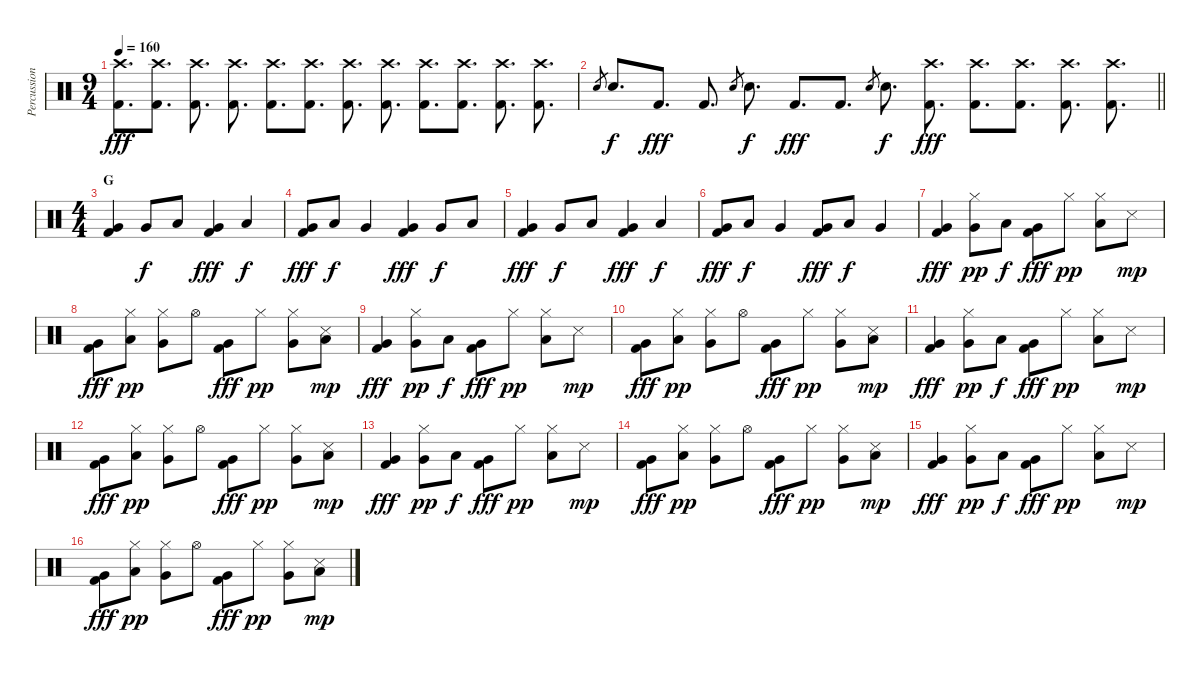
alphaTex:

\track ("Percussion" "Percussion") {instrument percussion}
\staff {score}
\articulation defaults
\ts (9 4)
\tempo 160
\clef neutral
\ks c
("Crash high (hit)" "Kick (hit) 2").8{d dy fff} ("Crash high (hit)" "Kick (hit) 2").8{d} ("Crash high (hit)" "Kick (hit) 2").8{d} ("Crash high (hit)" "Kick (hit) 2").8{d} ("Crash high (hit)" "Kick (hit) 2").8{d} ("Crash high (hit)" "Kick (hit) 2").8{d} ("Crash high (hit)" "Kick (hit) 2").8{d} ("Crash high (hit)" "Kick (hit) 2").8{d} ("Crash high (hit)" "Kick (hit) 2").8{d} ("Crash high (hit)" "Kick (hit) 2").8{d} ("Crash high (hit)" "Kick (hit) 2").8{d} ("Crash high (hit)" "Kick (hit) 2").8{d} |
\barLineRight lightlight "Electric Snare (hit)".8{gr} "Electric Snare (hit)".8{d dy f} "Kick (hit) 2".8{d dy fff} "Kick (hit) 2".8{d} "Electric Snare (hit)".8{gr} "Electric Snare (hit)".8{d dy f} "Kick (hit) 2".8{d dy fff} "Kick (hit) 2".8{d} "Electric Snare (hit)".8{gr} "Electric Snare (hit)".8{d dy f}
("Crash high (hit)" "Kick (hit) 2").8{d dy fff} ("Crash high (hit)" "Kick (hit) 2").8{d} ("Crash high (hit)" "Kick (hit) 2").8{d} ("Crash high (hit)" "Kick (hit) 2").8{d} ("Crash high (hit)" "Kick (hit) 2").8{d} |
\ts (4 4)
\section ("" "G")
("Very Low Tom (hit)" "Kick (hit) 2").4 "Very Low Tom (hit)".8{dy f} "Low Tom (hit)".8 ("Very Low Tom (hit)" "Kick (hit) 2").4{dy fff} "Low Tom (hit)".4{dy f} |
("Very Low Tom (hit)" "Kick (hit) 2").8{dy fff} "Low Tom (hit)".8{dy f} "Very Low Tom (hit)".4 ("Very Low Tom (hit)" "Kick (hit) 2").4{dy fff} "Very Low Tom (hit)".8{dy f} "Low Tom (hit)".8 |
("Very Low Tom (hit)" "Kick (hit) 2").4{dy fff} "Very Low Tom (hit)".8{dy f} "Low Tom (hit)".8 ("Very Low Tom (hit)" "Kick (hit) 2").4{dy fff} "Low Tom (hit)".4{dy f} |
("Very Low Tom (hit)" "Kick (hit) 2").8{dy fff} "Low Tom (hit)".8{dy f} "Very Low Tom (hit)".4 ("Very Low Tom (hit)" "Kick (hit) 2").8{dy fff} "Low Tom (hit)".8{dy f} "Very Low Tom (hit)".4 |
("Very Low Tom (hit)" "Kick (hit) 2").4{dy fff} ("Hi-Hat (closed)" "Very Low Tom (hit)").8{dy pp} "Low Tom (hit)".8{dy f} ("Very Low Tom (hit)" "Kick (hit) 2").8{dy fff} "Hi-Hat (closed)".8{dy pp} ("Hi-Hat (closed)" "Low Tom (hit)").8 "Snare (side stick) 3".8{dy mp} |
("Very Low Tom (hit)" "Kick (hit) 2").8{dy fff} ("Hi-Hat (closed)" "Low Tom (hit)").8{dy pp} ("Hi-Hat (closed)" "Very Low Tom (hit)").8 "Hi-Hat (open)".8 ("Very Low Tom (hit)" "Kick (hit) 2").8{dy fff} "Hi-Hat (closed)".8{dy pp} ("Hi-Hat (closed)" "Very Low Tom (hit)").8 ("Snare (side stick) 3" "Low Tom (hit)").8{dy mp} |
("Very Low Tom (hit)" "Kick (hit) 2").4{dy fff} ("Hi-Hat (closed)" "Very Low Tom (hit)").8{dy pp} "Low Tom (hit)".8{dy f} ("Very Low Tom (hit)" "Kick (hit) 2").8{dy fff} "Hi-Hat (closed)".8{dy pp} ("Hi-Hat (closed)" "Low Tom (hit)").8 "Snare (side stick) 3".8{dy mp} |
("Very Low Tom (hit)" "Kick (hit) 2").8{dy fff} ("Hi-Hat (closed)" "Low Tom (hit)").8{dy pp} ("Hi-Hat (closed)" "Very Low Tom (hit)").8 "Hi-Hat (open)".8 ("Very Low Tom (hit)" "Kick (hit) 2").8{dy fff} "Hi-Hat (closed)".8{dy pp} ("Hi-Hat (closed)" "Very Low Tom (hit)").8 ("Snare (side stick) 3" "Low Tom (hit)").8{dy mp} |
("Very Low Tom (hit)" "Kick (hit) 2").4{dy fff} ("Hi-Hat (closed)" "Very Low Tom (hit)").8{dy pp} "Low Tom (hit)".8{dy f} ("Very Low Tom (hit)" "Kick (hit) 2").8{dy fff} "Hi-Hat (closed)".8{dy pp} ("Hi-Hat (closed)" "Low Tom (hit)").8 "Snare (side stick) 3".8{dy mp} |
("Very Low Tom (hit)" "Kick (hit) 2").8{dy fff} ("Hi-Hat (closed)" "Low Tom (hit)").8{dy pp} ("Hi-Hat (closed)" "Very Low Tom (hit)").8 "Hi-Hat (open)".8 ("Very Low Tom (hit)" "Kick (hit) 2").8{dy fff} "Hi-Hat (closed)".8{dy pp} ("Hi-Hat (closed)" "Very Low Tom (hit)").8 ("Snare (side stick) 3" "Low Tom (hit)").8{dy mp} |
("Very Low Tom (hit)" "Kick (hit) 2").4{dy fff} ("Hi-Hat (closed)" "Very Low Tom (hit)").8{dy pp} "Low Tom (hit)".8{dy f} ("Very Low Tom (hit)" "Kick (hit) 2").8{dy fff} "Hi-Hat (closed)".8{dy pp} ("Hi-Hat (closed)" "Low Tom (hit)").8 "Snare (side stick) 3".8{dy mp} |
("Very Low Tom (hit)" "Kick (hit) 2").8{dy fff} ("Hi-Hat (closed)" "Low Tom (hit)").8{dy pp} ("Hi-Hat (closed)" "Very Low Tom (hit)").8 "Hi-Hat (open)".8 ("Very Low Tom (hit)" "Kick (hit) 2").8{dy fff} "Hi-Hat (closed)".8{dy pp} ("Hi-Hat (closed)" "Very Low Tom (hit)").8 ("Snare (side stick) 3" "Low Tom (hit)").8{dy mp} |
("Very Low Tom (hit)" "Kick (hit) 2").4{dy fff} ("Hi-Hat (closed)" "Very Low Tom (hit)").8{dy pp} "Low Tom (hit)".8{dy f} ("Very Low Tom (hit)" "Kick (hit) 2").8{dy fff} "Hi-Hat (closed)".8{dy pp} ("Hi-Hat (closed)" "Low Tom (hit)").8 "Snare (side stick) 3".8{dy mp} |
("Very Low Tom (hit)" "Kick (hit) 2").8{dy fff} ("Hi-Hat (closed)" "Low Tom (hit)").8{dy pp} ("Hi-Hat (closed)" "Very Low Tom (hit)").8 "Hi-Hat (open)".8 ("Very Low Tom (hit)" "Kick (hit) 2").8{dy fff} "Hi-Hat (closed)".8{dy pp} ("Hi-Hat (closed)" "Very Low Tom (hit)").8 ("Snare (side stick) 3" "Low Tom (hit)").8{dy mp}
